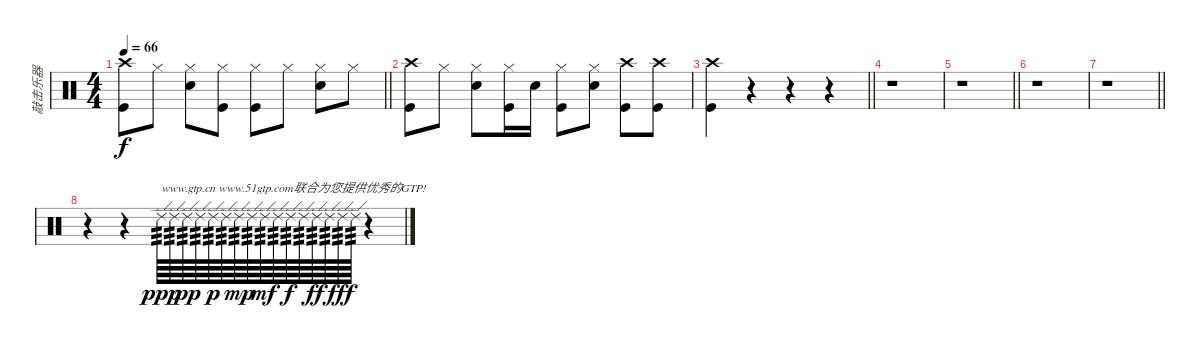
\track ("敲击乐器" "敲击乐器") {instrument percussion}
\staff {score}
\articulation defaults
\ts (4 4)
\tempo 66
\clef neutral
\barLineRight lightlight
\ks c
("Kick (hit)" "Crash high (hit)").8{dy f} "Hi-Hat (closed)".8 ("Snare (hit) 2" "Hi-Hat (closed)").8 ("Kick (hit)" "Hi-Hat (closed)").8 ("Kick (hit)" "Hi-Hat (closed)").8 "Hi-Hat (closed)".8 ("Snare (hit) 2" "Hi-Hat (closed)").8 "Hi-Hat (closed)".8 |
("Kick (hit)" "Crash high (hit)").8 "Hi-Hat (closed)".8 ("Snare (hit) 2" "Hi-Hat (closed)").8 ("Kick (hit)" "Hi-Hat (closed)").16 "Snare (hit) 2".16 ("Kick (hit)" "Hi-Hat (closed)").8 ("Snare (hit) 2" "Hi-Hat (closed)").8 ("Kick (hit)" "Crash high (hit)").8 ("Kick (hit)" "Crash high (hit)").8 |
\barLineRight lightlight
("Kick (hit)" "Crash high (hit)").4 r.4 r.4 r.4 |
r.1 |
\barLineRight lightlight
r.1 |
r.1 |
\barLineRight lightlight
r.1 |
r.4 r.4 "Ride (edge) 2".64{txt "www.gtp.cn www.51gtp.com联合为您提供优秀的GTP!" tp 3 dy ppp} "Ride (edge) 2".64{tp 3} "Ride (edge) 2".64{tp 3 dy pp} "Ride (edge) 2".64{tp 3} "Ride (edge) 2".64{tp 3 dy p} "Ride (edge) 2".64{tp 3} "Ride (edge) 2".64{tp 3 dy mp} "Ride (edge) 2".64{tp 3} "Ride (edge) 2".64{tp 3 dy mf} "Ride (edge) 2".64{tp 3} "Ride (edge) 2".64{tp 3 dy f} "Ride (edge) 2".64{tp 3} "Ride (edge) 2".64{tp 3 dy ff} "Ride (edge) 2".64{tp 3} "Ride (edge) 2".64{tp 3 dy fff} "Ride (edge) 2".64{tp 3} r.4
